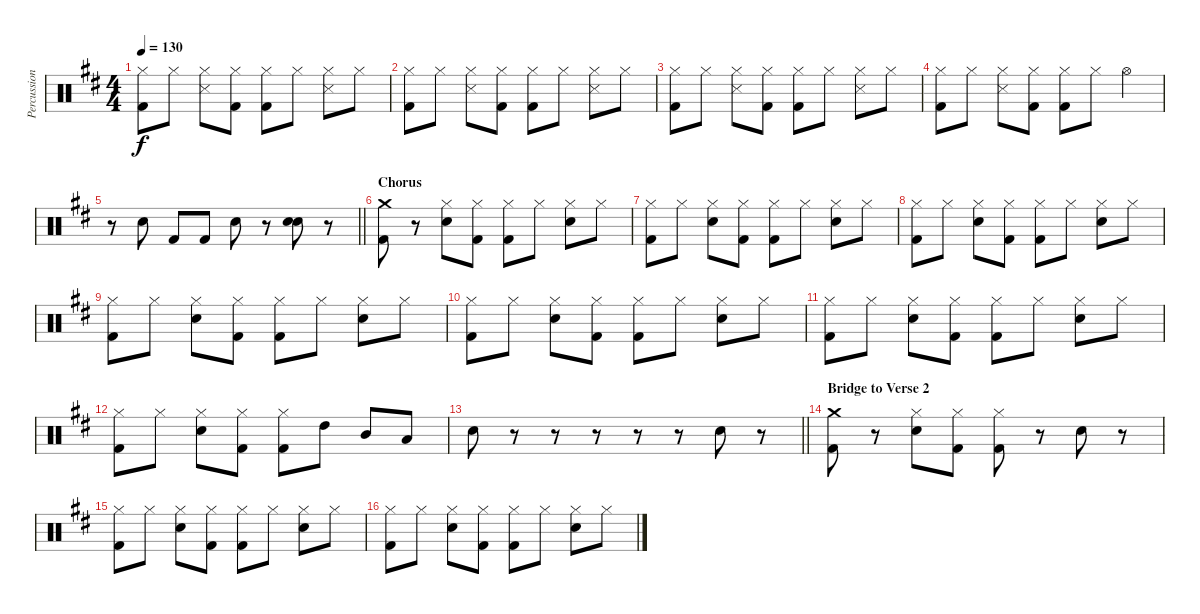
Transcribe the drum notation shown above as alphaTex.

\track ("Percussion" "Percussion") {instrument percussion}
\staff {score}
\articulation defaults
\ts (4 4)
\tempo 130
\clef neutral
\ks d
("Hi-Hat (closed)" "Kick (hit) 2").8{dy f} "Hi-Hat (closed)".8 ("Hi-Hat (closed)" "Snare (side stick) 3").8 ("Hi-Hat (closed)" "Kick (hit) 2").8 ("Hi-Hat (closed)" "Kick (hit) 2").8 "Hi-Hat (closed)".8 ("Hi-Hat (closed)" "Snare (side stick) 3").8 "Hi-Hat (closed)".8 |
("Hi-Hat (closed)" "Kick (hit) 2").8 "Hi-Hat (closed)".8 ("Hi-Hat (closed)" "Snare (side stick) 3").8 ("Hi-Hat (closed)" "Kick (hit) 2").8 ("Hi-Hat (closed)" "Kick (hit) 2").8 "Hi-Hat (closed)".8 ("Hi-Hat (closed)" "Snare (side stick) 3").8 "Hi-Hat (closed)".8 |
("Hi-Hat (closed)" "Kick (hit) 2").8 "Hi-Hat (closed)".8 ("Hi-Hat (closed)" "Snare (side stick) 3").8 ("Hi-Hat (closed)" "Kick (hit) 2").8 ("Hi-Hat (closed)" "Kick (hit) 2").8 "Hi-Hat (closed)".8 ("Hi-Hat (closed)" "Snare (side stick) 3").8 "Hi-Hat (closed)".8 |
("Hi-Hat (closed)" "Kick (hit) 2").8 "Hi-Hat (closed)".8 ("Hi-Hat (closed)" "Snare (side stick) 3").8 ("Hi-Hat (closed)" "Kick (hit) 2").8 ("Hi-Hat (closed)" "Kick (hit) 2").8 "Hi-Hat (closed)".8 "Hi-Hat (open)".4 |
\barLineRight lightlight
r.8 "Electric Snare (hit)".8 "Kick (hit) 2".8 "Kick (hit) 2".8 "Electric Snare (hit)".8 r.8 ("Electric Snare (hit)" "Electric Snare (hit)").8 r.8 |
\section ("" "Chorus")
("Crash medium (hit)" "Kick (hit) 2").8 r.8 ("Hi-Hat (closed)" "Electric Snare (hit)").8 ("Hi-Hat (closed)" "Kick (hit) 2").8 ("Hi-Hat (closed)" "Kick (hit) 2").8 "Hi-Hat (closed)".8 ("Hi-Hat (closed)" "Electric Snare (hit)").8 "Hi-Hat (closed)".8 |
("Hi-Hat (closed)" "Kick (hit) 2").8 "Hi-Hat (closed)".8 ("Hi-Hat (closed)" "Electric Snare (hit)").8 ("Hi-Hat (closed)" "Kick (hit) 2").8 ("Hi-Hat (closed)" "Kick (hit) 2").8 "Hi-Hat (closed)".8 ("Hi-Hat (closed)" "Electric Snare (hit)").8 "Hi-Hat (closed)".8 |
("Hi-Hat (closed)" "Kick (hit) 2").8 "Hi-Hat (closed)".8 ("Hi-Hat (closed)" "Electric Snare (hit)").8 ("Hi-Hat (closed)" "Kick (hit) 2").8 ("Hi-Hat (closed)" "Kick (hit) 2").8 "Hi-Hat (closed)".8 ("Hi-Hat (closed)" "Electric Snare (hit)").8 "Hi-Hat (closed)".8 |
("Hi-Hat (closed)" "Kick (hit) 2").8 "Hi-Hat (closed)".8 ("Hi-Hat (closed)" "Electric Snare (hit)").8 ("Hi-Hat (closed)" "Kick (hit) 2").8 ("Hi-Hat (closed)" "Kick (hit) 2").8 "Hi-Hat (closed)".8 ("Hi-Hat (closed)" "Electric Snare (hit)").8 "Hi-Hat (closed)".8 |
("Hi-Hat (closed)" "Kick (hit) 2").8 "Hi-Hat (closed)".8 ("Hi-Hat (closed)" "Electric Snare (hit)").8 ("Hi-Hat (closed)" "Kick (hit) 2").8 ("Hi-Hat (closed)" "Kick (hit) 2").8 "Hi-Hat (closed)".8 ("Hi-Hat (closed)" "Electric Snare (hit)").8 "Hi-Hat (closed)".8 |
("Hi-Hat (closed)" "Kick (hit) 2").8 "Hi-Hat (closed)".8 ("Hi-Hat (closed)" "Electric Snare (hit)").8 ("Hi-Hat (closed)" "Kick (hit) 2").8 ("Hi-Hat (closed)" "Kick (hit) 2").8 "Hi-Hat (closed)".8 ("Hi-Hat (closed)" "Electric Snare (hit)").8 "Hi-Hat (closed)".8 |
("Hi-Hat (closed)" "Kick (hit) 2").8 "Hi-Hat (closed)".8 ("Hi-Hat (closed)" "Electric Snare (hit)").8 ("Hi-Hat (closed)" "Kick (hit) 2").8 ("Hi-Hat (closed)" "Kick (hit) 2").8 "High Tom (hit)".8 "Mid Tom (hit)".8 "Low Tom (hit)".8 |
\barLineRight lightlight "Electric Snare (hit)".8
r.8 r.8 r.8 r.8 r.8 "Electric Snare (hit)".8 r.8 |
\section ("" "Bridge to Verse 2")
("Crash medium (hit)" "Kick (hit) 2").8 r.8 ("Hi-Hat (closed)" "Electric Snare (hit)").8 ("Hi-Hat (closed)" "Kick (hit) 2").8 ("Hi-Hat (closed)" "Kick (hit) 2").8 r.8 "Electric Snare (hit)".8 r.8 |
("Hi-Hat (closed)" "Kick (hit) 2").8 "Hi-Hat (closed)".8 ("Hi-Hat (closed)" "Electric Snare (hit)").8 ("Hi-Hat (closed)" "Kick (hit) 2").8 ("Hi-Hat (closed)" "Kick (hit) 2").8 "Hi-Hat (closed)".8 ("Hi-Hat (closed)" "Electric Snare (hit)").8 "Hi-Hat (closed)".8 |
("Hi-Hat (closed)" "Kick (hit) 2").8 "Hi-Hat (closed)".8 ("Hi-Hat (closed)" "Electric Snare (hit)").8 ("Hi-Hat (closed)" "Kick (hit) 2").8 ("Hi-Hat (closed)" "Kick (hit) 2").8 "Hi-Hat (closed)".8 ("Hi-Hat (closed)" "Electric Snare (hit)").8 "Hi-Hat (closed)".8
